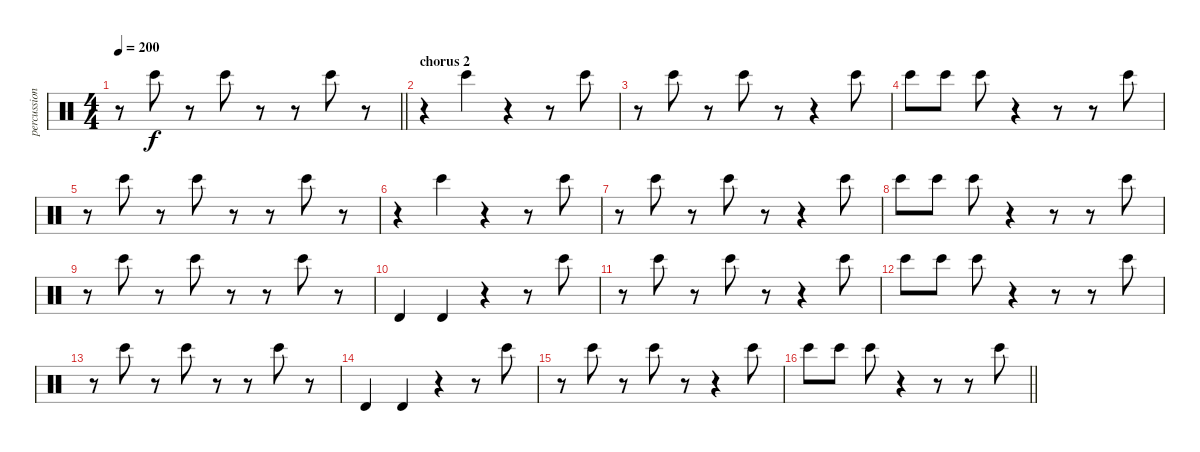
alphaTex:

\track ("percussion" "percussion") {instrument percussion}
\staff {score}
\articulation defaults
\ts (4 4)
\tempo 200
\clef neutral
\barLineRight lightlight
\ks c
r.8{dy f} "Bongo High (hit)".8 r.8 "Bongo High (hit)".8 r.8 r.8 "Bongo High (hit)".8 r.8 |
\section ("" "chorus 2")
r.4 "Bongo High (hit)".4 r.4 r.8 "Bongo High (hit)".8 |
r.8 "Bongo High (hit)".8 r.8 "Bongo High (hit)".8 r.8 r.4 "Bongo High (hit)".8 |
"Bongo High (hit)".8 "Bongo High (hit)".8 "Bongo High (hit)".8 r.4 r.8 r.8 "Bongo High (hit)".8 |
r.8 "Bongo High (hit)".8 r.8 "Bongo High (hit)".8 r.8 r.8 "Bongo High (hit)".8 r.8 |
r.4 "Bongo High (hit)".4 r.4 r.8 "Bongo High (hit)".8 |
r.8 "Bongo High (hit)".8 r.8 "Bongo High (hit)".8 r.8 r.4 "Bongo High (hit)".8 |
"Bongo High (hit)".8 "Bongo High (hit)".8 "Bongo High (hit)".8 r.4 r.8 r.8 "Bongo High (hit)".8 |
r.8 "Bongo High (hit)".8 r.8 "Bongo High (hit)".8 r.8 r.8 "Bongo High (hit)".8 r.8 |
"Timbale high (hit)".4{volume 16} "Timbale high (hit)".4 r.4{volume 13} r.8 "Bongo High (hit)".8 |
r.8 "Bongo High (hit)".8 r.8 "Bongo High (hit)".8 r.8 r.4 "Bongo High (hit)".8 |
"Bongo High (hit)".8 "Bongo High (hit)".8 "Bongo High (hit)".8 r.4 r.8 r.8 "Bongo High (hit)".8 |
r.8 "Bongo High (hit)".8 r.8 "Bongo High (hit)".8 r.8 r.8 "Bongo High (hit)".8 r.8 |
"Timbale high (hit)".4{volume 16} "Timbale high (hit)".4 r.4{volume 13} r.8 "Bongo High (hit)".8 |
r.8 "Bongo High (hit)".8 r.8 "Bongo High (hit)".8 r.8 r.4 "Bongo High (hit)".8 |
\barLineRight lightlight "Bongo High (hit)".8 "Bongo High (hit)".8 "Bongo High (hit)".8
r.4 r.8 r.8 "Bongo High (hit)".8
